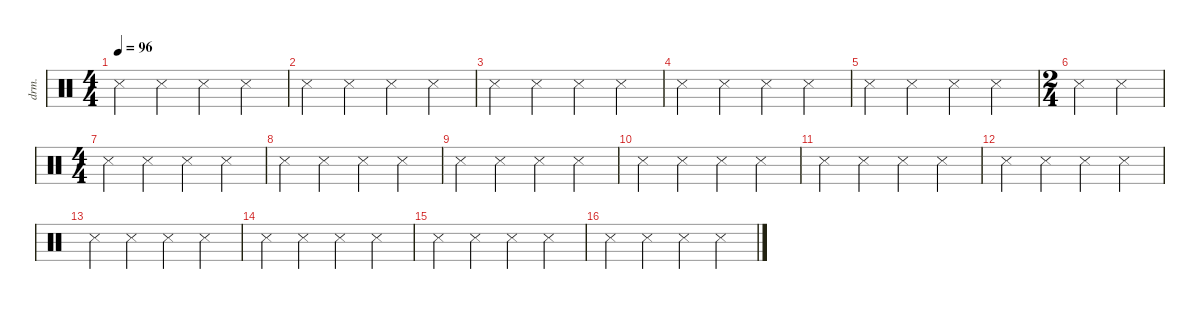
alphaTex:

\defaultSystemsLayout 4
\hideDynamics
\bracketExtendMode nobrackets
\otherSystemsTrackNameOrientation horizontal
\track ("Drumkit" "drm.") {instrument percussion}
\staff {score}
\articulation defaults
\ts (4 4)
\tempo 96
\clef neutral
\ks c "Metronome (hit)".4{dy mf} "Metronome (hit)".4 "Metronome (hit)".4 "Metronome (hit)".4
|
"Metronome (hit)".4 "Metronome (hit)".4 "Metronome (hit)".4 "Metronome (hit)".4 |
"Metronome (hit)".4 "Metronome (hit)".4 "Metronome (hit)".4 "Metronome (hit)".4 |
"Metronome (hit)".4 "Metronome (hit)".4 "Metronome (hit)".4 "Metronome (hit)".4 |
"Metronome (hit)".4 "Metronome (hit)".4 "Metronome (hit)".4 "Metronome (hit)".4 |
\ts (2 4)
\beaming (8 2 2)
"Metronome (hit)".4 "Metronome (hit)".4 |
\ts (4 4)
\beaming (8 2 2 2 2)
"Metronome (hit)".4 "Metronome (hit)".4 "Metronome (hit)".4 "Metronome (hit)".4 |
"Metronome (hit)".4 "Metronome (hit)".4 "Metronome (hit)".4 "Metronome (hit)".4 |
"Metronome (hit)".4 "Metronome (hit)".4 "Metronome (hit)".4 "Metronome (hit)".4 |
"Metronome (hit)".4 "Metronome (hit)".4 "Metronome (hit)".4 "Metronome (hit)".4 |
"Metronome (hit)".4 "Metronome (hit)".4 "Metronome (hit)".4 "Metronome (hit)".4 |
"Metronome (hit)".4 "Metronome (hit)".4 "Metronome (hit)".4 "Metronome (hit)".4 |
"Metronome (hit)".4 "Metronome (hit)".4 "Metronome (hit)".4 "Metronome (hit)".4 |
"Metronome (hit)".4 "Metronome (hit)".4 "Metronome (hit)".4 "Metronome (hit)".4 |
"Metronome (hit)".4 "Metronome (hit)".4 "Metronome (hit)".4 "Metronome (hit)".4 |
"Metronome (hit)".4 "Metronome (hit)".4 "Metronome (hit)".4 "Metronome (hit)".4
